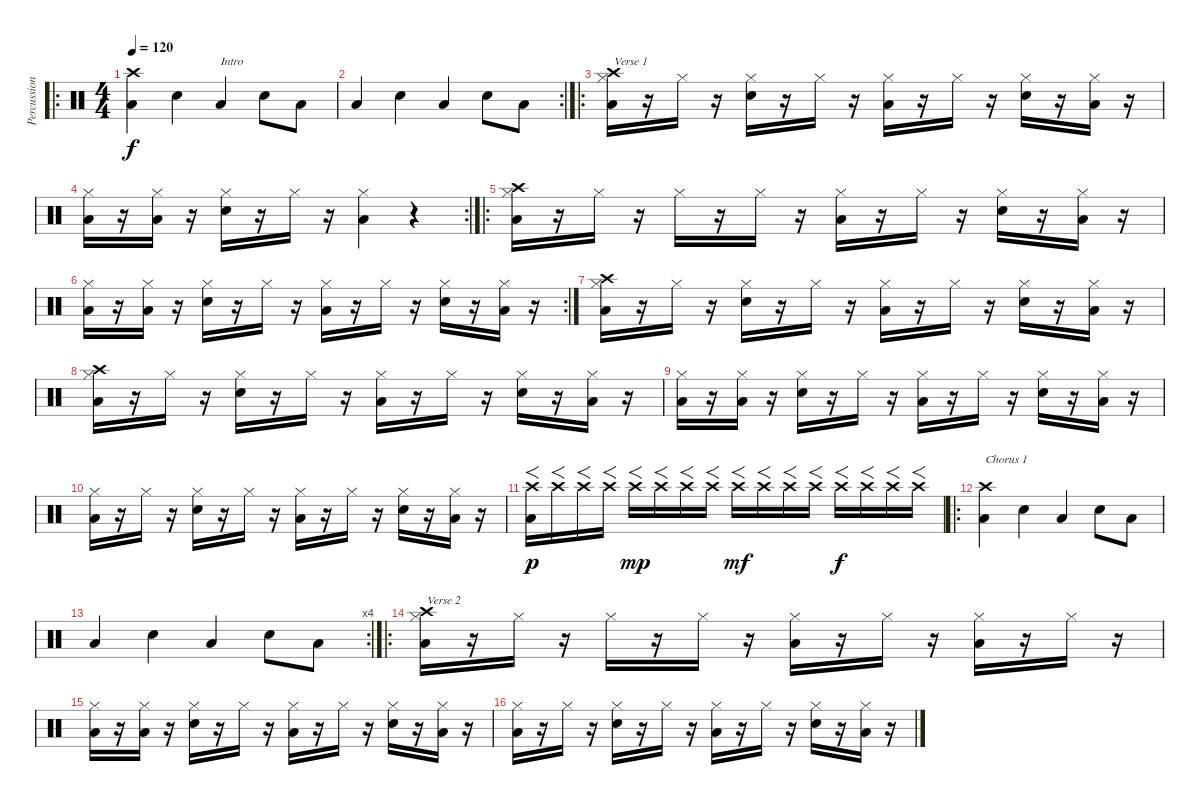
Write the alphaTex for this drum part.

\track ("Percussion" "Percussion") {instrument percussion}
\staff {score}
\articulation defaults
\ro
\ts (4 4)
\tempo 120
\clef neutral
\ks c
("Crash high (hit)" "Low Tom (hit)").4{dy f} "Electric Snare (hit)".4 "Low Tom (hit)".4{txt "Intro"} "Electric Snare (hit)".8 "Low Tom (hit)".8 |
\rc 2 "Low Tom (hit)".4 "Electric Snare (hit)".4 "Low Tom (hit)".4 "Electric Snare (hit)".8 "Low Tom (hit)".8
|
\ro
("Crash high (hit)" "Hi-Hat (closed)" "Low Tom (hit)").16{txt "Verse 1"} r.16 "Hi-Hat (closed)".16 r.16 ("Hi-Hat (closed)" "Electric Snare (hit)").16 r.16 "Hi-Hat (closed)".16 r.16 ("Hi-Hat (closed)" "Low Tom (hit)").16 r.16 "Hi-Hat (closed)".16 r.16 ("Hi-Hat (closed)" "Electric Snare (hit)").16 r.16 ("Hi-Hat (closed)" "Low Tom (hit)").16 r.16 |
\rc 2
("Hi-Hat (closed)" "Low Tom (hit)").16 r.16 ("Hi-Hat (closed)" "Low Tom (hit)").16 r.16 ("Hi-Hat (closed)" "Electric Snare (hit)").16 r.16 "Hi-Hat (closed)".16 r.16 ("Hi-Hat (closed)" "Low Tom (hit)").4 r.4 |
\ro
("Crash high (hit)" "Hi-Hat (closed)" "Low Tom (hit)").16 r.16 "Hi-Hat (closed)".16 r.16 "Hi-Hat (closed)".16 r.16 "Hi-Hat (closed)".16 r.16 ("Hi-Hat (closed)" "Low Tom (hit)").16 r.16 "Hi-Hat (closed)".16 r.16 ("Hi-Hat (closed)" "Electric Snare (hit)").16 r.16 ("Hi-Hat (closed)" "Low Tom (hit)").16 r.16 |
\rc 2
("Hi-Hat (closed)" "Low Tom (hit)").16 r.16 ("Hi-Hat (closed)" "Low Tom (hit)").16 r.16 ("Hi-Hat (closed)" "Electric Snare (hit)").16 r.16 "Hi-Hat (closed)".16 r.16 ("Hi-Hat (closed)" "Low Tom (hit)").16 r.16 "Hi-Hat (closed)".16 r.16 ("Hi-Hat (closed)" "Electric Snare (hit)").16 r.16 ("Hi-Hat (closed)" "Low Tom (hit)").16 r.16 |
("Crash high (hit)" "Hi-Hat (closed)" "Low Tom (hit)").16 r.16 "Hi-Hat (closed)".16 r.16 ("Hi-Hat (closed)" "Electric Snare (hit)").16 r.16 "Hi-Hat (closed)".16 r.16 ("Hi-Hat (closed)" "Low Tom (hit)").16 r.16 "Hi-Hat (closed)".16 r.16 ("Hi-Hat (closed)" "Electric Snare (hit)").16 r.16 ("Hi-Hat (closed)" "Low Tom (hit)").16 r.16 |
("Crash high (hit)" "Hi-Hat (closed)" "Low Tom (hit)").16 r.16 "Hi-Hat (closed)".16 r.16 ("Hi-Hat (closed)" "Electric Snare (hit)").16 r.16 "Hi-Hat (closed)".16 r.16 ("Hi-Hat (closed)" "Low Tom (hit)").16 r.16 "Hi-Hat (closed)".16 r.16 ("Hi-Hat (closed)" "Electric Snare (hit)").16 r.16 ("Hi-Hat (closed)" "Low Tom (hit)").16 r.16 |
("Hi-Hat (closed)" "Low Tom (hit)").16 r.16 ("Hi-Hat (closed)" "Low Tom (hit)").16 r.16 ("Hi-Hat (closed)" "Electric Snare (hit)").16 r.16 "Hi-Hat (closed)".16 r.16 ("Hi-Hat (closed)" "Low Tom (hit)").16 r.16 "Hi-Hat (closed)".16 r.16 ("Hi-Hat (closed)" "Electric Snare (hit)").16 r.16 ("Hi-Hat (closed)" "Low Tom (hit)").16 r.16 |
("Hi-Hat (closed)" "Low Tom (hit)").16 r.16 "Hi-Hat (closed)".16 r.16 ("Hi-Hat (closed)" "Electric Snare (hit)").16 r.16 "Hi-Hat (closed)".16 r.16 ("Hi-Hat (closed)" "Low Tom (hit)").16 r.16 "Hi-Hat (closed)".16 r.16 ("Hi-Hat (closed)" "Electric Snare (hit)").16 r.16 ("Hi-Hat (closed)" "Low Tom (hit)").16 r.16 |
("Crash high (hit)" "Low Tom (hit)").16{f dy p} "Crash high (hit)".16{f} "Crash high (hit)".16{f} "Crash high (hit)".16{f} "Crash high (hit)".16{f dy mp} "Crash high (hit)".16{f} "Crash high (hit)".16{f} "Crash high (hit)".16{f} "Crash high (hit)".16{f dy mf} "Crash high (hit)".16{f} "Crash high (hit)".16{f} "Crash high (hit)".16{f} "Crash high (hit)".16{f dy f} "Crash high (hit)".16{f} "Crash high (hit)".16{f} "Crash high (hit)".16{f} |
\ro
("Crash high (hit)" "Low Tom (hit)").4{txt "Chorus 1"} "Electric Snare (hit)".4 "Low Tom (hit)".4 "Electric Snare (hit)".8 "Low Tom (hit)".8 |
\rc 4 "Low Tom (hit)".4 "Electric Snare (hit)".4 "Low Tom (hit)".4 "Electric Snare (hit)".8 "Low Tom (hit)".8
|
\ro
("Crash high (hit)" "Hi-Hat (closed)" "Low Tom (hit)").16{txt "Verse 2"} r.16 "Hi-Hat (closed)".16 r.16 "Hi-Hat (closed)".16 r.16 "Hi-Hat (closed)".16 r.16 ("Hi-Hat (closed)" "Low Tom (hit)").16 r.16 "Hi-Hat (closed)".16 r.16 ("Hi-Hat (closed)" "Low Tom (hit)").16 r.16 "Hi-Hat (closed)".16 r.16 |
("Hi-Hat (closed)" "Low Tom (hit)").16 r.16 ("Hi-Hat (closed)" "Low Tom (hit)").16 r.16 ("Hi-Hat (closed)" "Electric Snare (hit)").16 r.16 "Hi-Hat (closed)".16 r.16 ("Hi-Hat (closed)" "Low Tom (hit)").16 r.16 "Hi-Hat (closed)".16 r.16 ("Hi-Hat (closed)" "Electric Snare (hit)").16 r.16 ("Hi-Hat (closed)" "Low Tom (hit)").16 r.16 |
("Hi-Hat (closed)" "Low Tom (hit)").16 r.16 "Hi-Hat (closed)".16 r.16 ("Hi-Hat (closed)" "Electric Snare (hit)").16 r.16 "Hi-Hat (closed)".16 r.16 ("Hi-Hat (closed)" "Low Tom (hit)").16 r.16 "Hi-Hat (closed)".16 r.16 ("Hi-Hat (closed)" "Electric Snare (hit)").16 r.16 ("Hi-Hat (closed)" "Low Tom (hit)").16 r.16
